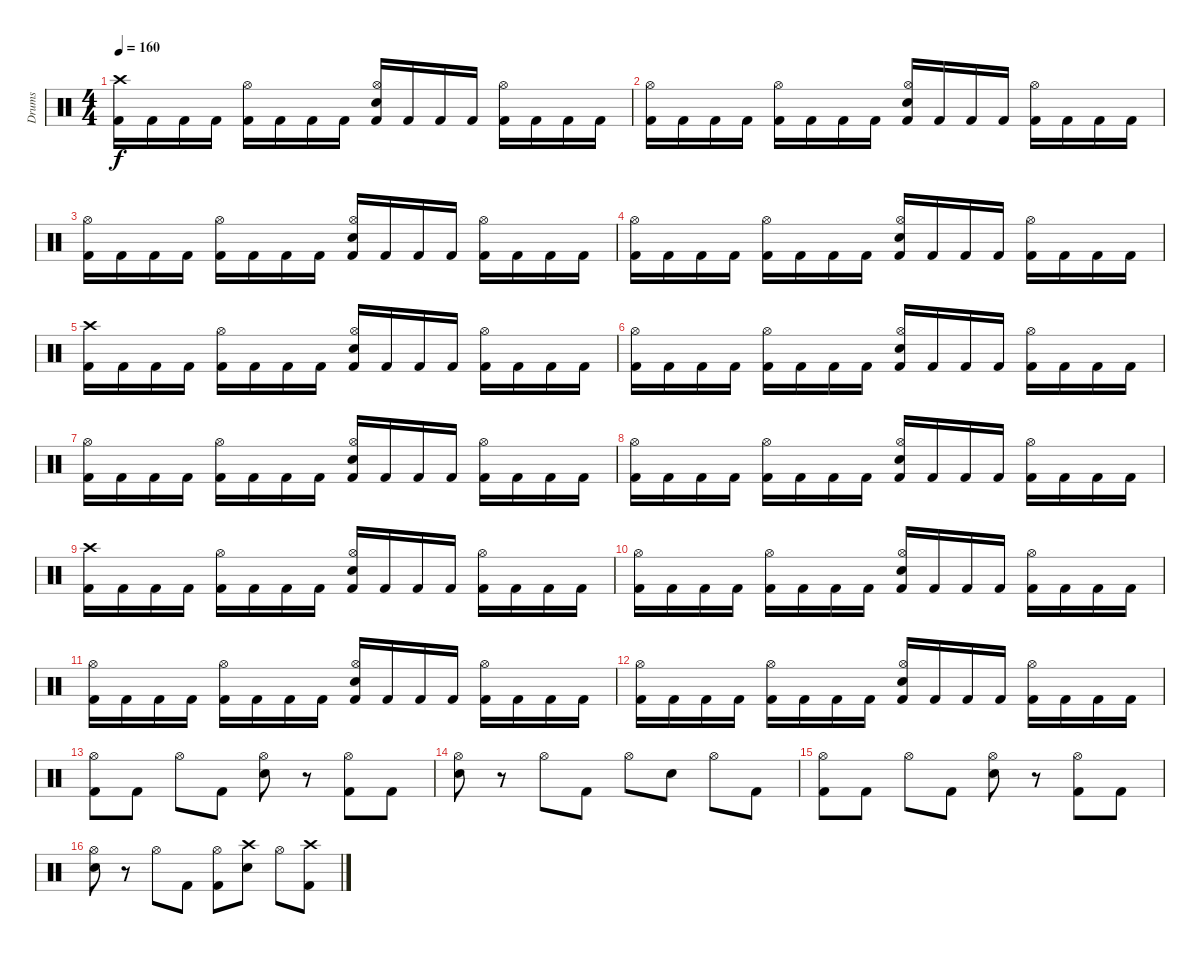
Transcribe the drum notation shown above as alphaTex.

\track ("Drums" "Drums") {instrument percussion}
\staff {score}
\articulation defaults
\ts (4 4)
\tempo 160
\clef neutral
\ks c
("Crash high (hit)" "Kick (hit) 2").16{dy f} "Kick (hit) 2".16 "Kick (hit) 2".16 "Kick (hit) 2".16 ("Hi-Hat (open)" "Kick (hit) 2").16 "Kick (hit) 2".16 "Kick (hit) 2".16 "Kick (hit) 2".16 ("Hi-Hat (open)" "Snare (hit) 2" "Kick (hit) 2").16 "Kick (hit) 2".16 "Kick (hit) 2".16 "Kick (hit) 2".16 ("Hi-Hat (open)" "Kick (hit) 2").16 "Kick (hit) 2".16 "Kick (hit) 2".16 "Kick (hit) 2".16 |
("Hi-Hat (open)" "Kick (hit) 2").16 "Kick (hit) 2".16 "Kick (hit) 2".16 "Kick (hit) 2".16 ("Hi-Hat (open)" "Kick (hit) 2").16 "Kick (hit) 2".16 "Kick (hit) 2".16 "Kick (hit) 2".16 ("Hi-Hat (open)" "Snare (hit) 2" "Kick (hit) 2").16 "Kick (hit) 2".16 "Kick (hit) 2".16 "Kick (hit) 2".16 ("Hi-Hat (open)" "Kick (hit) 2").16 "Kick (hit) 2".16 "Kick (hit) 2".16 "Kick (hit) 2".16 |
("Hi-Hat (open)" "Kick (hit) 2").16 "Kick (hit) 2".16 "Kick (hit) 2".16 "Kick (hit) 2".16 ("Hi-Hat (open)" "Kick (hit) 2").16 "Kick (hit) 2".16 "Kick (hit) 2".16 "Kick (hit) 2".16 ("Hi-Hat (open)" "Snare (hit) 2" "Kick (hit) 2").16 "Kick (hit) 2".16 "Kick (hit) 2".16 "Kick (hit) 2".16 ("Hi-Hat (open)" "Kick (hit) 2").16 "Kick (hit) 2".16 "Kick (hit) 2".16 "Kick (hit) 2".16 |
("Hi-Hat (open)" "Kick (hit) 2").16 "Kick (hit) 2".16 "Kick (hit) 2".16 "Kick (hit) 2".16 ("Hi-Hat (open)" "Kick (hit) 2").16 "Kick (hit) 2".16 "Kick (hit) 2".16 "Kick (hit) 2".16 ("Hi-Hat (open)" "Snare (hit) 2" "Kick (hit) 2").16 "Kick (hit) 2".16 "Kick (hit) 2".16 "Kick (hit) 2".16 ("Hi-Hat (open)" "Kick (hit) 2").16 "Kick (hit) 2".16 "Kick (hit) 2".16 "Kick (hit) 2".16 |
("Crash high (hit)" "Kick (hit) 2").16 "Kick (hit) 2".16 "Kick (hit) 2".16 "Kick (hit) 2".16 ("Hi-Hat (open)" "Kick (hit) 2").16 "Kick (hit) 2".16 "Kick (hit) 2".16 "Kick (hit) 2".16 ("Hi-Hat (open)" "Snare (hit) 2" "Kick (hit) 2").16 "Kick (hit) 2".16 "Kick (hit) 2".16 "Kick (hit) 2".16 ("Hi-Hat (open)" "Kick (hit) 2").16 "Kick (hit) 2".16 "Kick (hit) 2".16 "Kick (hit) 2".16 |
("Hi-Hat (open)" "Kick (hit) 2").16 "Kick (hit) 2".16 "Kick (hit) 2".16 "Kick (hit) 2".16 ("Hi-Hat (open)" "Kick (hit) 2").16 "Kick (hit) 2".16 "Kick (hit) 2".16 "Kick (hit) 2".16 ("Hi-Hat (open)" "Snare (hit) 2" "Kick (hit) 2").16 "Kick (hit) 2".16 "Kick (hit) 2".16 "Kick (hit) 2".16 ("Hi-Hat (open)" "Kick (hit) 2").16 "Kick (hit) 2".16 "Kick (hit) 2".16 "Kick (hit) 2".16 |
("Hi-Hat (open)" "Kick (hit) 2").16 "Kick (hit) 2".16 "Kick (hit) 2".16 "Kick (hit) 2".16 ("Hi-Hat (open)" "Kick (hit) 2").16 "Kick (hit) 2".16 "Kick (hit) 2".16 "Kick (hit) 2".16 ("Hi-Hat (open)" "Snare (hit) 2" "Kick (hit) 2").16 "Kick (hit) 2".16 "Kick (hit) 2".16 "Kick (hit) 2".16 ("Hi-Hat (open)" "Kick (hit) 2").16 "Kick (hit) 2".16 "Kick (hit) 2".16 "Kick (hit) 2".16 |
("Hi-Hat (open)" "Kick (hit) 2").16 "Kick (hit) 2".16 "Kick (hit) 2".16 "Kick (hit) 2".16 ("Hi-Hat (open)" "Kick (hit) 2").16 "Kick (hit) 2".16 "Kick (hit) 2".16 "Kick (hit) 2".16 ("Hi-Hat (open)" "Snare (hit) 2" "Kick (hit) 2").16 "Kick (hit) 2".16 "Kick (hit) 2".16 "Kick (hit) 2".16 ("Hi-Hat (open)" "Kick (hit) 2").16 "Kick (hit) 2".16 "Kick (hit) 2".16 "Kick (hit) 2".16 |
("Crash high (hit)" "Kick (hit) 2").16 "Kick (hit) 2".16 "Kick (hit) 2".16 "Kick (hit) 2".16 ("Hi-Hat (open)" "Kick (hit) 2").16 "Kick (hit) 2".16 "Kick (hit) 2".16 "Kick (hit) 2".16 ("Hi-Hat (open)" "Snare (hit) 2" "Kick (hit) 2").16 "Kick (hit) 2".16 "Kick (hit) 2".16 "Kick (hit) 2".16 ("Hi-Hat (open)" "Kick (hit) 2").16 "Kick (hit) 2".16 "Kick (hit) 2".16 "Kick (hit) 2".16 |
("Hi-Hat (open)" "Kick (hit) 2").16 "Kick (hit) 2".16 "Kick (hit) 2".16 "Kick (hit) 2".16 ("Hi-Hat (open)" "Kick (hit) 2").16 "Kick (hit) 2".16 "Kick (hit) 2".16 "Kick (hit) 2".16 ("Hi-Hat (open)" "Snare (hit) 2" "Kick (hit) 2").16 "Kick (hit) 2".16 "Kick (hit) 2".16 "Kick (hit) 2".16 ("Hi-Hat (open)" "Kick (hit) 2").16 "Kick (hit) 2".16 "Kick (hit) 2".16 "Kick (hit) 2".16 |
("Hi-Hat (open)" "Kick (hit) 2").16 "Kick (hit) 2".16 "Kick (hit) 2".16 "Kick (hit) 2".16 ("Hi-Hat (open)" "Kick (hit) 2").16 "Kick (hit) 2".16 "Kick (hit) 2".16 "Kick (hit) 2".16 ("Hi-Hat (open)" "Snare (hit) 2" "Kick (hit) 2").16 "Kick (hit) 2".16 "Kick (hit) 2".16 "Kick (hit) 2".16 ("Hi-Hat (open)" "Kick (hit) 2").16 "Kick (hit) 2".16 "Kick (hit) 2".16 "Kick (hit) 2".16 |
("Hi-Hat (open)" "Kick (hit) 2").16 "Kick (hit) 2".16 "Kick (hit) 2".16 "Kick (hit) 2".16 ("Hi-Hat (open)" "Kick (hit) 2").16 "Kick (hit) 2".16 "Kick (hit) 2".16 "Kick (hit) 2".16 ("Hi-Hat (open)" "Snare (hit) 2" "Kick (hit) 2").16 "Kick (hit) 2".16 "Kick (hit) 2".16 "Kick (hit) 2".16 ("Hi-Hat (open)" "Kick (hit) 2").16 "Kick (hit) 2".16 "Kick (hit) 2".16 "Kick (hit) 2".16 |
("Hi-Hat (open)" "Kick (hit) 2").8 "Kick (hit) 2".8 "Hi-Hat (open)".8 "Kick (hit) 2".8 ("Hi-Hat (open)" "Snare (hit) 2").8 r.8 ("Hi-Hat (open)" "Kick (hit) 2").8 "Kick (hit) 2".8 |
("Hi-Hat (open)" "Snare (hit) 2").8 r.8 "Hi-Hat (open)".8 "Kick (hit) 2".8 "Hi-Hat (open)".8 "Snare (hit) 2".8 "Hi-Hat (open)".8 "Kick (hit) 2".8 |
("Hi-Hat (open)" "Kick (hit) 2").8 "Kick (hit) 2".8 "Hi-Hat (open)".8 "Kick (hit) 2".8 ("Hi-Hat (open)" "Snare (hit) 2").8 r.8 ("Hi-Hat (open)" "Kick (hit) 2").8 "Kick (hit) 2".8 |
("Hi-Hat (open)" "Snare (hit) 2").8 r.8 "Hi-Hat (open)".8 "Kick (hit) 2".8 ("Hi-Hat (open)" "Kick (hit) 2").8 ("Crash high (hit)" "Snare (hit) 2").8 "Hi-Hat (open)".8 ("Crash high (hit)" "Kick (hit) 2").8
